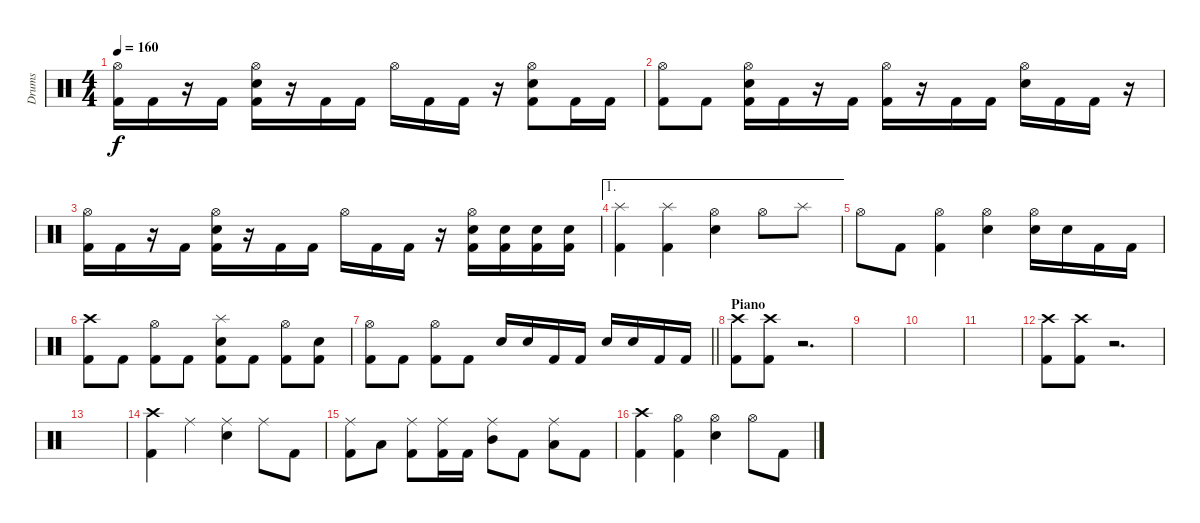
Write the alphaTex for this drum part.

\track ("Drums" "Drums") {instrument percussion}
\staff {score}
\articulation defaults
\ts (4 4)
\tempo 160
\clef neutral
\ks c
("Hi-Hat (open)" "Kick (hit) 2").16{dy f} "Kick (hit) 2".16 r.16 "Kick (hit) 2".16 ("Electric Snare (hit)" "Hi-Hat (open)" "Kick (hit) 2").16 r.16 "Kick (hit) 2".16 "Kick (hit) 2".16 "Hi-Hat (open)".16 "Kick (hit) 2".16 "Kick (hit) 2".16 r.16 ("Electric Snare (hit)" "Hi-Hat (open)" "Kick (hit) 2").8 "Kick (hit) 2".16 "Kick (hit) 2".16 |
("Hi-Hat (open)" "Kick (hit) 2").8 "Kick (hit) 2".8 ("Electric Snare (hit)" "Hi-Hat (open)" "Kick (hit) 2").16 "Kick (hit) 2".16 r.16 "Kick (hit) 2".16 ("Hi-Hat (open)" "Kick (hit) 2").16 r.16 "Kick (hit) 2".16 "Kick (hit) 2".16 ("Electric Snare (hit)" "Hi-Hat (open)").16 "Kick (hit) 2".16 "Kick (hit) 2".16 r.16 |
("Hi-Hat (open)" "Kick (hit) 2").16 "Kick (hit) 2".16 r.16 "Kick (hit) 2".16 ("Electric Snare (hit)" "Hi-Hat (open)" "Kick (hit) 2").16 r.16 "Kick (hit) 2".16 "Kick (hit) 2".16 "Hi-Hat (open)".16 "Kick (hit) 2".16 "Kick (hit) 2".16 r.16 ("Electric Snare (hit)" "Hi-Hat (open)" "Kick (hit) 2").16 ("Electric Snare (hit)" "Kick (hit) 2").16 ("Electric Snare (hit)" "Kick (hit) 2").16 ("Electric Snare (hit)" "Kick (hit) 2").16 |
\ae 1
("Splash (hit)" "Kick (hit) 2").4 ("Splash (hit)" "Kick (hit) 2").4 ("Hi-Hat (open)" "Electric Snare (hit)").4 "Hi-Hat (open)".8 "Splash (hit)".8 |
"Hi-Hat (open)".8 "Kick (hit) 2".8 ("Kick (hit) 2" "Hi-Hat (open)").4 ("Hi-Hat (open)" "Electric Snare (hit)").4 ("Hi-Hat (open)" "Electric Snare (hit)").16 "Electric Snare (hit)".16 "Kick (hit) 2".16 "Kick (hit) 2".16 |
("Crash high (hit)" "Kick (hit) 2").8 "Kick (hit) 2".8 ("Hi-Hat (open)" "Kick (hit) 2").8 "Kick (hit) 2".8 ("Electric Snare (hit)" "Splash (hit)" "Kick (hit) 2").8 "Kick (hit) 2".8 ("Hi-Hat (open)" "Kick (hit) 2").8 ("Electric Snare (hit)" "Kick (hit) 2").8 |
\barLineRight lightlight
("Hi-Hat (open)" "Kick (hit) 2").8 "Kick (hit) 2".8 ("Hi-Hat (open)" "Kick (hit) 2").8 "Kick (hit) 2".8 "Electric Snare (hit)".16 "Electric Snare (hit)".16 "Kick (hit) 2".16 "Kick (hit) 2".16 "Electric Snare (hit)".16 "Electric Snare (hit)".16 "Kick (hit) 2".16 "Kick (hit) 2".16 |
\section ("" "Piano")
("Crash high (hit)" "Kick (hit) 2").8 ("Crash high (hit)" "Kick (hit) 2").8 r.2{d} |
|
|
|
("Crash high (hit)" "Kick (hit) 2").8 ("Crash high (hit)" "Kick (hit) 2").8 r.2{d} |
|
("Crash high (hit)" "Kick (hit) 2").4 "Ride (middle)".4 ("Ride (middle)" "Electric Snare (hit)").4 "Ride (middle)".8 "Kick (hit) 2".8 |
("Ride (middle)" "Kick (hit) 2").8 "Low Tom (hit)".8 ("Ride (middle)" "Kick (hit) 2").8 ("Ride (middle)" "Kick (hit) 2").16 "Kick (hit) 2".16 ("Ride (middle)" "Mid Tom (hit)").8 "Kick (hit) 2".8 ("Ride (middle)" "Low Tom (hit)").8 "Kick (hit) 2".8 |
("Crash high (hit)" "Kick (hit) 2").4 ("Hi-Hat (open)" "Kick (hit) 2").4 ("Hi-Hat (open)" "Electric Snare (hit)").4 "Hi-Hat (open)".8 "Kick (hit) 2".8
